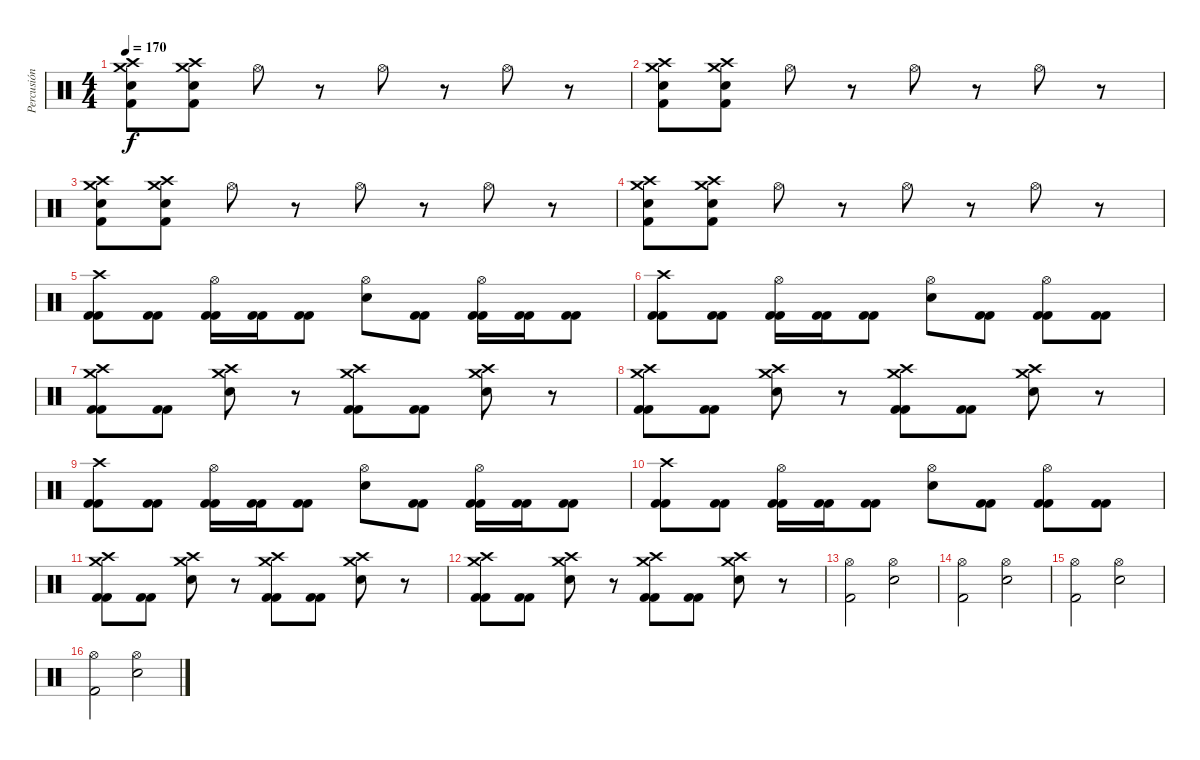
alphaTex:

\track ("Percusión" "Percusión") {instrument percussion}
\staff {score}
\articulation defaults
\ts (4 4)
\tempo 170
\clef neutral
\ks c
("Crash medium (hit)" "Crash high (hit)" "Electric Snare (hit)" "Kick (hit) 2").8{dy f} ("Crash medium (hit)" "Crash high (hit)" "Electric Snare (hit)" "Kick (hit) 2").8 "Hi-Hat (open)".8 r.8 "Hi-Hat (open)".8 r.8 "Hi-Hat (open)".8 r.8 |
("Crash medium (hit)" "Crash high (hit)" "Electric Snare (hit)" "Kick (hit) 2").8 ("Crash medium (hit)" "Crash high (hit)" "Electric Snare (hit)" "Kick (hit) 2").8 "Hi-Hat (open)".8 r.8 "Hi-Hat (open)".8 r.8 "Hi-Hat (open)".8 r.8 |
("Crash medium (hit)" "Crash high (hit)" "Electric Snare (hit)" "Kick (hit) 2").8 ("Crash medium (hit)" "Crash high (hit)" "Electric Snare (hit)" "Kick (hit) 2").8 "Hi-Hat (open)".8 r.8 "Hi-Hat (open)".8 r.8 "Hi-Hat (open)".8 r.8 |
("Crash medium (hit)" "Crash high (hit)" "Electric Snare (hit)" "Kick (hit) 2").8 ("Crash medium (hit)" "Crash high (hit)" "Electric Snare (hit)" "Kick (hit) 2").8 "Hi-Hat (open)".8 r.8 "Hi-Hat (open)".8 r.8 "Hi-Hat (open)".8 r.8 |
("Crash high (hit)" "Kick (hit) 2" "Kick (hit) 2").8 ("Kick (hit) 2" "Kick (hit) 2").8 ("Hi-Hat (open)" "Kick (hit) 2" "Kick (hit) 2").16 ("Kick (hit) 2" "Kick (hit) 2").16 ("Kick (hit) 2" "Kick (hit) 2").8 ("Hi-Hat (open)" "Electric Snare (hit)").8 ("Kick (hit) 2" "Kick (hit) 2").8 ("Hi-Hat (open)" "Kick (hit) 2" "Kick (hit) 2").16 ("Kick (hit) 2" "Kick (hit) 2").16 ("Kick (hit) 2" "Kick (hit) 2").8 |
("Crash high (hit)" "Kick (hit) 2" "Kick (hit) 2").8 ("Kick (hit) 2" "Kick (hit) 2").8 ("Hi-Hat (open)" "Kick (hit) 2" "Kick (hit) 2").16 ("Kick (hit) 2" "Kick (hit) 2").16 ("Kick (hit) 2" "Kick (hit) 2").8 ("Hi-Hat (open)" "Electric Snare (hit)").8 ("Kick (hit) 2" "Kick (hit) 2").8 ("Hi-Hat (open)" "Kick (hit) 2" "Kick (hit) 2").8 ("Kick (hit) 2" "Kick (hit) 2").8 |
("Crash high (hit)" "Crash medium (hit)" "Kick (hit) 2" "Kick (hit) 2").8 ("Kick (hit) 2" "Kick (hit) 2").8 ("Crash high (hit)" "Crash medium (hit)" "Electric Snare (hit)").8 r.8 ("Crash high (hit)" "Crash medium (hit)" "Kick (hit) 2" "Kick (hit) 2").8 ("Kick (hit) 2" "Kick (hit) 2").8 ("Crash high (hit)" "Crash medium (hit)" "Electric Snare (hit)").8 r.8 |
("Crash medium (hit)" "Crash high (hit)" "Kick (hit) 2" "Kick (hit) 2").8 ("Kick (hit) 2" "Kick (hit) 2").8 ("Crash medium (hit)" "Crash high (hit)" "Electric Snare (hit)").8 r.8 ("Crash medium (hit)" "Crash high (hit)" "Kick (hit) 2" "Kick (hit) 2").8 ("Kick (hit) 2" "Kick (hit) 2").8 ("Crash medium (hit)" "Crash high (hit)" "Electric Snare (hit)").8 r.8 |
("Crash high (hit)" "Kick (hit) 2" "Kick (hit) 2").8 ("Kick (hit) 2" "Kick (hit) 2").8 ("Hi-Hat (open)" "Kick (hit) 2" "Kick (hit) 2").16 ("Kick (hit) 2" "Kick (hit) 2").16 ("Kick (hit) 2" "Kick (hit) 2").8 ("Hi-Hat (open)" "Electric Snare (hit)").8 ("Kick (hit) 2" "Kick (hit) 2").8 ("Hi-Hat (open)" "Kick (hit) 2" "Kick (hit) 2").16 ("Kick (hit) 2" "Kick (hit) 2").16 ("Kick (hit) 2" "Kick (hit) 2").8 |
("Crash high (hit)" "Kick (hit) 2" "Kick (hit) 2").8 ("Kick (hit) 2" "Kick (hit) 2").8 ("Hi-Hat (open)" "Kick (hit) 2" "Kick (hit) 2").16 ("Kick (hit) 2" "Kick (hit) 2").16 ("Kick (hit) 2" "Kick (hit) 2").8 ("Hi-Hat (open)" "Electric Snare (hit)").8 ("Kick (hit) 2" "Kick (hit) 2").8 ("Hi-Hat (open)" "Kick (hit) 2" "Kick (hit) 2").8 ("Kick (hit) 2" "Kick (hit) 2").8 |
("Crash high (hit)" "Crash medium (hit)" "Kick (hit) 2" "Kick (hit) 2").8 ("Kick (hit) 2" "Kick (hit) 2").8 ("Crash high (hit)" "Crash medium (hit)" "Electric Snare (hit)").8 r.8 ("Crash high (hit)" "Crash medium (hit)" "Kick (hit) 2" "Kick (hit) 2").8 ("Kick (hit) 2" "Kick (hit) 2").8 ("Crash high (hit)" "Crash medium (hit)" "Electric Snare (hit)").8 r.8 |
("Crash medium (hit)" "Crash high (hit)" "Kick (hit) 2" "Kick (hit) 2").8 ("Kick (hit) 2" "Kick (hit) 2").8 ("Crash medium (hit)" "Crash high (hit)" "Electric Snare (hit)").8 r.8 ("Crash medium (hit)" "Crash high (hit)" "Kick (hit) 2" "Kick (hit) 2").8 ("Kick (hit) 2" "Kick (hit) 2").8 ("Crash medium (hit)" "Crash high (hit)" "Electric Snare (hit)").8 r.8 |
("Hi-Hat (open)" "Kick (hit) 2").2 ("Hi-Hat (open)" "Electric Snare (hit)").2 |
("Hi-Hat (open)" "Kick (hit) 2").2 ("Hi-Hat (open)" "Electric Snare (hit)").2 |
("Hi-Hat (open)" "Kick (hit) 2").2 ("Hi-Hat (open)" "Electric Snare (hit)").2 |
("Hi-Hat (open)" "Kick (hit) 2").2 ("Hi-Hat (open)" "Electric Snare (hit)").2
